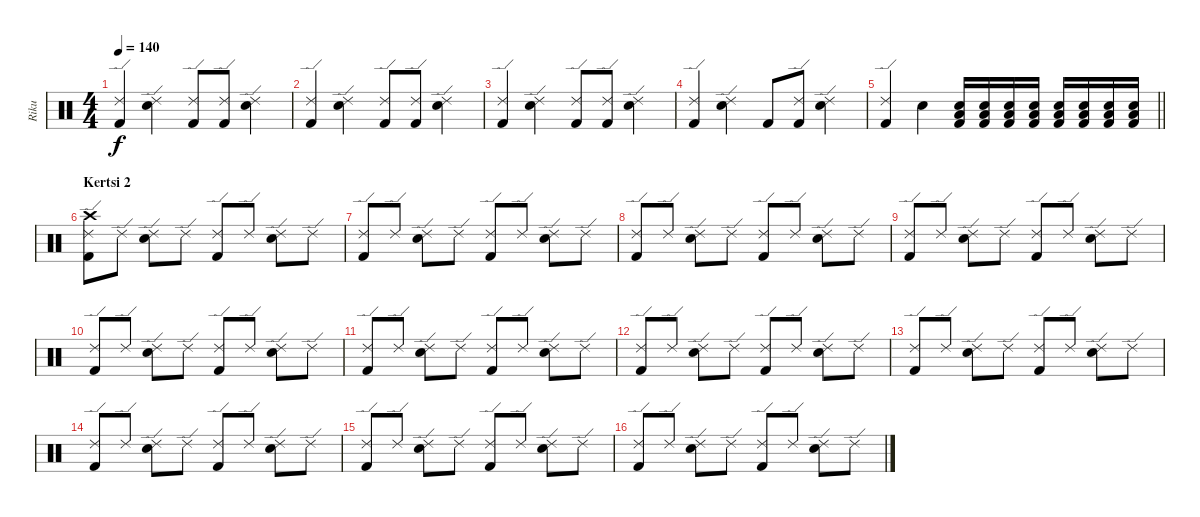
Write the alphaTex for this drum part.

\track ("Riku" "Riku") {instrument percussion}
\staff {score}
\articulation defaults
\ts (4 4)
\tempo 140
\clef neutral
\ks c
("Ride (edge) 2" "Kick (hit) 2").4{dy f} ("Snare (hit) 2" "Ride (edge) 2").4 ("Kick (hit) 2" "Ride (edge) 2").8 ("Kick (hit) 2" "Ride (edge) 2").8 ("Snare (hit) 2" "Ride (edge) 2").4 |
("Ride (edge) 2" "Kick (hit) 2").4 ("Snare (hit) 2" "Ride (edge) 2").4 ("Kick (hit) 2" "Ride (edge) 2").8 ("Kick (hit) 2" "Ride (edge) 2").8 ("Snare (hit) 2" "Ride (edge) 2").4 |
("Ride (edge) 2" "Kick (hit) 2").4 ("Snare (hit) 2" "Ride (edge) 2").4 ("Kick (hit) 2" "Ride (edge) 2").8 ("Kick (hit) 2" "Ride (edge) 2").8 ("Snare (hit) 2" "Ride (edge) 2").4 |
("Ride (edge) 2" "Kick (hit) 2").4 ("Snare (hit) 2" "Ride (edge) 2").4 "Kick (hit) 2".8 ("Kick (hit) 2" "Ride (edge) 2").8 ("Snare (hit) 2" "Ride (edge) 2").4 |
\barLineRight lightlight
("Ride (edge) 2" "Kick (hit) 2").4 "Snare (hit) 2".4 ("Low Tom (hit)" "Electric Snare (hit)" "Kick (hit) 2").16 ("Low Tom (hit)" "Snare (hit) 2" "Kick (hit) 2").16 ("Low Tom (hit)" "Electric Snare (hit)" "Kick (hit) 2").16 ("Low Tom (hit)" "Snare (hit) 2" "Kick (hit) 2").16 ("Low Tom (hit)" "Electric Snare (hit)" "Kick (hit) 2").16 ("Low Tom (hit)" "Snare (hit) 2" "Kick (hit) 2").16 ("Low Tom (hit)" "Electric Snare (hit)" "Kick (hit) 2").16 ("Low Tom (hit)" "Snare (hit) 2" "Kick (hit) 2").16 |
\section ("" "Kertsi 2")
("Crash high (hit)" "Kick (hit) 2" "Ride (edge) 2").8 "Ride (edge) 2".8 ("Electric Snare (hit)" "Ride (edge) 2").8 "Ride (edge) 2".8 ("Kick (hit) 2" "Ride (edge) 2").8 "Ride (edge) 2".8 ("Electric Snare (hit)" "Ride (edge) 2").8 "Ride (edge) 2".8 |
("Kick (hit) 2" "Ride (edge) 2").8 "Ride (edge) 2".8 ("Electric Snare (hit)" "Ride (edge) 2").8 "Ride (edge) 2".8 ("Kick (hit) 2" "Ride (edge) 2").8 "Ride (edge) 2".8 ("Electric Snare (hit)" "Ride (edge) 2").8 "Ride (edge) 2".8 |
("Kick (hit) 2" "Ride (edge) 2").8 "Ride (edge) 2".8 ("Electric Snare (hit)" "Ride (edge) 2").8 "Ride (edge) 2".8 ("Kick (hit) 2" "Ride (edge) 2").8 "Ride (edge) 2".8 ("Electric Snare (hit)" "Ride (edge) 2").8 "Ride (edge) 2".8 |
("Kick (hit) 2" "Ride (edge) 2").8 "Ride (edge) 2".8 ("Electric Snare (hit)" "Ride (edge) 2").8 "Ride (edge) 2".8 ("Kick (hit) 2" "Ride (edge) 2").8 "Ride (edge) 2".8 ("Electric Snare (hit)" "Ride (edge) 2").8 "Ride (edge) 2".8 |
("Kick (hit) 2" "Ride (edge) 2").8 "Ride (edge) 2".8 ("Electric Snare (hit)" "Ride (edge) 2").8 "Ride (edge) 2".8 ("Kick (hit) 2" "Ride (edge) 2").8 "Ride (edge) 2".8 ("Electric Snare (hit)" "Ride (edge) 2").8 "Ride (edge) 2".8 |
("Kick (hit) 2" "Ride (edge) 2").8 "Ride (edge) 2".8 ("Electric Snare (hit)" "Ride (edge) 2").8 "Ride (edge) 2".8 ("Kick (hit) 2" "Ride (edge) 2").8 "Ride (edge) 2".8 ("Electric Snare (hit)" "Ride (edge) 2").8 "Ride (edge) 2".8 |
("Kick (hit) 2" "Ride (edge) 2").8 "Ride (edge) 2".8 ("Electric Snare (hit)" "Ride (edge) 2").8 "Ride (edge) 2".8 ("Kick (hit) 2" "Ride (edge) 2").8 "Ride (edge) 2".8 ("Electric Snare (hit)" "Ride (edge) 2").8 "Ride (edge) 2".8 |
("Kick (hit) 2" "Ride (edge) 2").8 "Ride (edge) 2".8 ("Electric Snare (hit)" "Ride (edge) 2").8 "Ride (edge) 2".8 ("Kick (hit) 2" "Ride (edge) 2").8 "Ride (edge) 2".8 ("Electric Snare (hit)" "Ride (edge) 2").8 "Ride (edge) 2".8 |
("Kick (hit) 2" "Ride (edge) 2").8 "Ride (edge) 2".8 ("Electric Snare (hit)" "Ride (edge) 2").8 "Ride (edge) 2".8 ("Kick (hit) 2" "Ride (edge) 2").8 "Ride (edge) 2".8 ("Electric Snare (hit)" "Ride (edge) 2").8 "Ride (edge) 2".8 |
("Kick (hit) 2" "Ride (edge) 2").8 "Ride (edge) 2".8 ("Electric Snare (hit)" "Ride (edge) 2").8 "Ride (edge) 2".8 ("Kick (hit) 2" "Ride (edge) 2").8 "Ride (edge) 2".8 ("Electric Snare (hit)" "Ride (edge) 2").8 "Ride (edge) 2".8 |
("Kick (hit) 2" "Ride (edge) 2").8 "Ride (edge) 2".8 ("Electric Snare (hit)" "Ride (edge) 2").8 "Ride (edge) 2".8 ("Kick (hit) 2" "Ride (edge) 2").8 "Ride (edge) 2".8 ("Electric Snare (hit)" "Ride (edge) 2").8 "Ride (edge) 2".8
